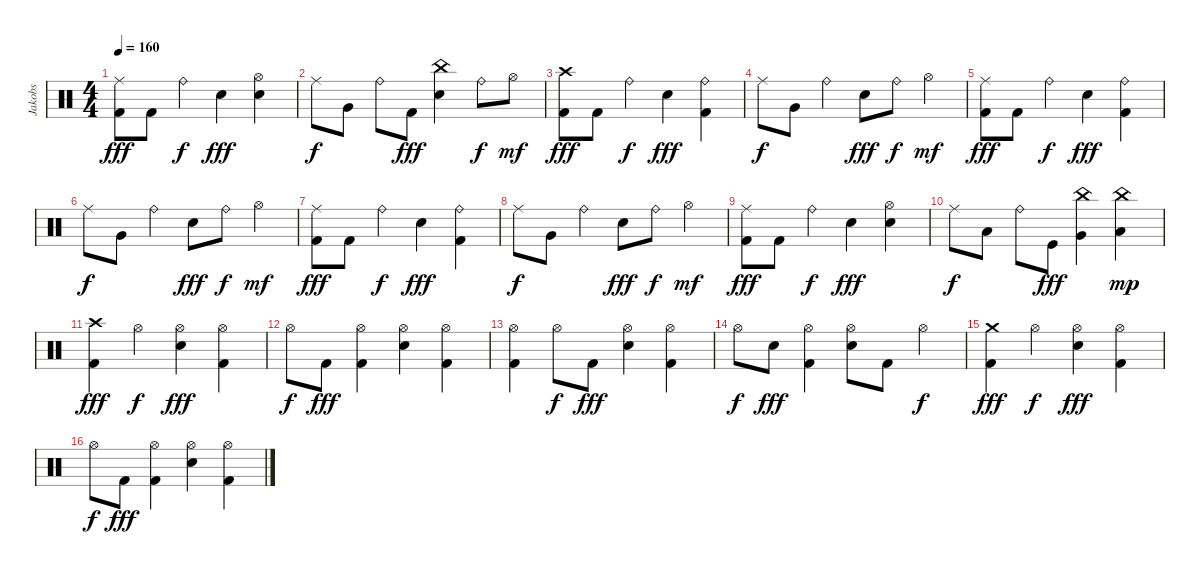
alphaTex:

\track ("Jakobs" "Jakobs") {instrument percussion}
\staff {score}
\articulation defaults
\ts (4 4)
\tempo 160
\clef neutral
\ks c
("Ride (middle)" "Kick (hit) 2").8{dy fff} "Kick (hit) 2".8 "Ride (bell)".4{dy f} "Snare (hit) 2".4{dy fff} ("Hi-Hat (open)" "Snare (hit) 2").4 |
"Ride (middle)".8{dy f} "Very Low Tom (hit)".8 "Ride (bell)".8 "Kick (hit) 2".8{dy fff} ("China (hit)" "Snare (hit) 2").4 "Ride (bell)".8{dy f} "Hi-Hat (open)".8{dy mf} |
("Crash high (hit)" "Kick (hit) 2").8{dy fff} "Kick (hit) 2".8 "Ride (bell)".4{dy f} "Snare (hit) 2".4{dy fff} ("Ride (bell)" "Kick (hit) 2").4 |
"Ride (middle)".8{dy f} "Very Low Tom (hit)".8 "Ride (bell)".4 "Snare (hit) 2".8{dy fff} "Ride (bell)".8{dy f} "Hi-Hat (open)".4{dy mf} |
("Ride (middle)" "Kick (hit) 2").8{dy fff} "Kick (hit) 2".8 "Ride (bell)".4{dy f} "Snare (hit) 2".4{dy fff} ("Ride (bell)" "Kick (hit) 2").4 |
"Ride (middle)".8{dy f} "Very Low Tom (hit)".8 "Ride (bell)".4 "Snare (hit) 2".8{dy fff} "Ride (bell)".8{dy f} "Hi-Hat (open)".4{dy mf} |
("Ride (middle)" "Kick (hit) 2").8{dy fff} "Kick (hit) 2".8 "Ride (bell)".4{dy f} "Snare (hit) 2".4{dy fff} ("Ride (bell)" "Kick (hit) 2").4 |
"Ride (middle)".8{dy f} "Very Low Tom (hit)".8 "Ride (bell)".4 "Snare (hit) 2".8{dy fff} "Ride (bell)".8{dy f} "Hi-Hat (open)".4{dy mf} |
("Ride (middle)" "Kick (hit) 2").8{dy fff} "Kick (hit) 2".8 "Ride (bell)".4{dy f} "Snare (hit) 2".4{dy fff} ("Hi-Hat (open)" "Snare (hit) 2").4 |
"Ride (middle)".8{dy f} "Low Tom (hit)".8 "Ride (bell)".8 "Kick (hit)".8{dy fff} ("China (hit)" "Very Low Tom (hit)").4 ("China (hit)" "Low Floor Tom (hit)").4{dy mp} |
("Crash high (hit)" "Kick (hit) 2").4{dy fff} "Hi-Hat (open)".4{dy f} ("Hi-Hat (open)" "Snare (hit) 2").4{dy fff} ("Hi-Hat (open)" "Kick (hit) 2").4 |
"Hi-Hat (open)".8{dy f} "Kick (hit) 2".8{dy fff} ("Hi-Hat (open)" "Kick (hit) 2").4 ("Hi-Hat (open)" "Snare (hit) 2").4 ("Hi-Hat (open)" "Kick (hit) 2").4 |
("Hi-Hat (open)" "Kick (hit) 2").4 "Hi-Hat (open)".8{dy f} "Kick (hit) 2".8{dy fff} ("Hi-Hat (open)" "Snare (hit) 2").4 ("Hi-Hat (open)" "Kick (hit) 2").4 |
"Hi-Hat (open)".8{dy f} "Snare (hit) 2".8{dy fff} ("Hi-Hat (open)" "Kick (hit) 2").4 ("Hi-Hat (open)" "Snare (hit) 2").8 "Kick (hit) 2".8 "Hi-Hat (open)".4{dy f} |
("Crash medium (hit)" "Kick (hit) 2").4{dy fff} "Hi-Hat (open)".4{dy f} ("Hi-Hat (open)" "Snare (hit) 2").4{dy fff} ("Hi-Hat (open)" "Kick (hit) 2").4 |
"Hi-Hat (open)".8{dy f} "Kick (hit) 2".8{dy fff} ("Hi-Hat (open)" "Kick (hit) 2").4 ("Hi-Hat (open)" "Snare (hit) 2").4 ("Hi-Hat (open)" "Kick (hit) 2").4
